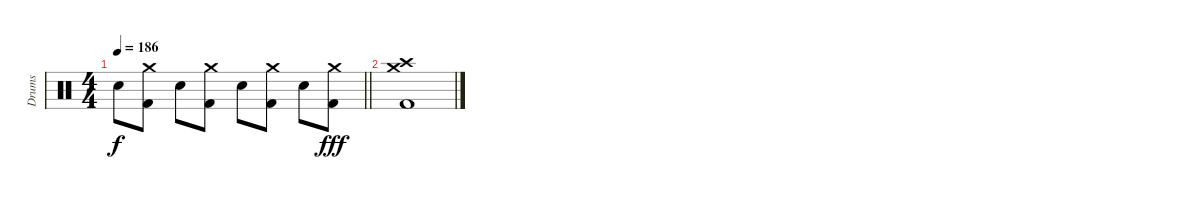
\track ("Drums" "Drums") {instrument percussion}
\staff {score}
\articulation defaults
\ts (4 4)
\tempo 186
\clef neutral
\barLineRight lightlight
\ks c "Snare (hit) 2".8{dy f}
("Crash medium (hit)" "Kick (hit) 2").8 "Snare (hit) 2".8 ("Crash medium (hit)" "Kick (hit) 2").8 "Snare (hit) 2".8 ("Crash medium (hit)" "Kick (hit) 2").8 "Snare (hit) 2".8 ("Crash medium (hit)" "Kick (hit) 2").8{dy fff} |
("Crash high (hit)" "Crash medium (hit)" "Kick (hit) 2").1
